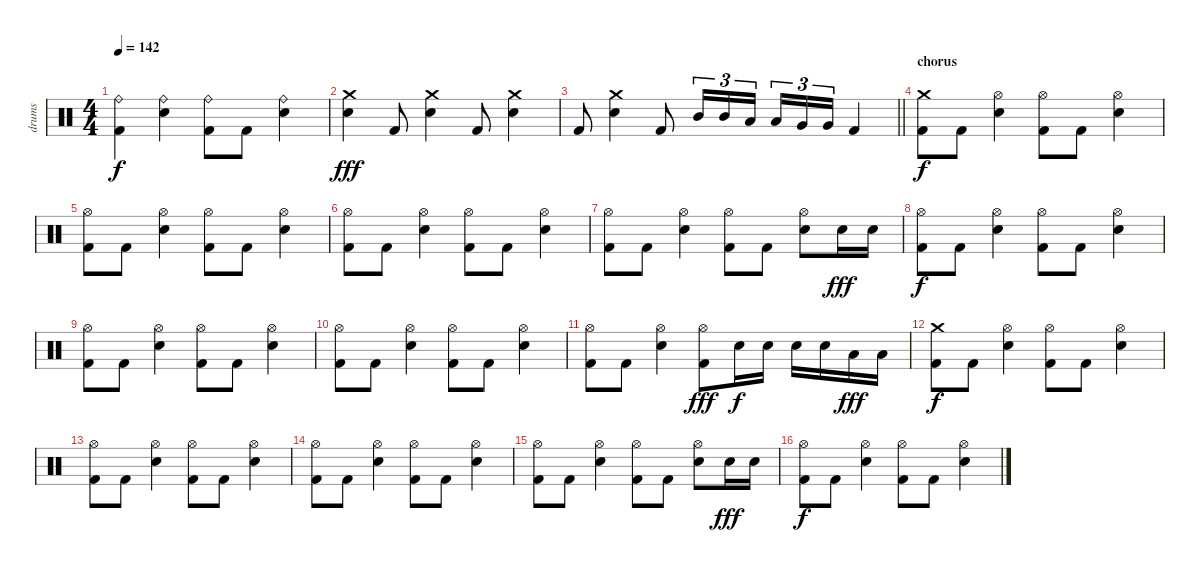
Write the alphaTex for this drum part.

\track ("drums" "drums") {instrument percussion}
\staff {score}
\articulation defaults
\ts (4 4)
\tempo 142
\clef neutral
\ks c
("Ride (bell)" "Kick (hit) 2").4{dy f} ("Ride (bell)" "Electric Snare (hit)").4 ("Ride (bell)" "Kick (hit) 2").8 "Kick (hit) 2".8 ("Ride (bell)" "Electric Snare (hit)").4 |
("Crash medium (hit)" "Electric Snare (hit)").4{dy fff} "Kick (hit) 2".8 ("Crash medium (hit)" "Electric Snare (hit)").4 "Kick (hit) 2".8 ("Crash medium (hit)" "Electric Snare (hit)").4 |
\barLineRight lightlight "Kick (hit) 2".8
("Crash medium (hit)" "Electric Snare (hit)").4 "Kick (hit) 2".8 "Mid Tom (hit)".16{tu (3 2)} "Mid Tom (hit)".16{tu (3 2)} "Low Tom (hit)".16{tu (3 2) beam splitsecondary} "Low Tom (hit)".16{tu (3 2)} "Very Low Tom (hit)".16{tu (3 2)} "Very Low Tom (hit)".16{tu (3 2)} "Kick (hit) 2".4 |
\section ("" "chorus")
("Crash medium (hit)" "Kick (hit) 2").8{dy f volume 12} "Kick (hit) 2".8 ("Hi-Hat (open)" "Electric Snare (hit)").4 ("Hi-Hat (open)" "Kick (hit) 2").8 "Kick (hit) 2".8 ("Hi-Hat (open)" "Electric Snare (hit)").4 |
("Hi-Hat (open)" "Kick (hit) 2").8 "Kick (hit) 2".8 ("Hi-Hat (open)" "Electric Snare (hit)").4 ("Hi-Hat (open)" "Kick (hit) 2").8 "Kick (hit) 2".8 ("Hi-Hat (open)" "Electric Snare (hit)").4 |
("Hi-Hat (open)" "Kick (hit) 2").8 "Kick (hit) 2".8 ("Hi-Hat (open)" "Electric Snare (hit)").4 ("Hi-Hat (open)" "Kick (hit) 2").8 "Kick (hit) 2".8 ("Hi-Hat (open)" "Electric Snare (hit)").4 |
("Hi-Hat (open)" "Kick (hit) 2").8 "Kick (hit) 2".8 ("Hi-Hat (open)" "Electric Snare (hit)").4 ("Hi-Hat (open)" "Kick (hit) 2").8 "Kick (hit) 2".8 ("Hi-Hat (open)" "Electric Snare (hit)").8 "Electric Snare (hit)".16{dy fff} "Electric Snare (hit)".16 |
("Hi-Hat (open)" "Kick (hit) 2").8{dy f} "Kick (hit) 2".8 ("Hi-Hat (open)" "Electric Snare (hit)").4 ("Hi-Hat (open)" "Kick (hit) 2").8 "Kick (hit) 2".8 ("Hi-Hat (open)" "Electric Snare (hit)").4 |
("Hi-Hat (open)" "Kick (hit) 2").8 "Kick (hit) 2".8 ("Hi-Hat (open)" "Electric Snare (hit)").4 ("Hi-Hat (open)" "Kick (hit) 2").8 "Kick (hit) 2".8 ("Hi-Hat (open)" "Electric Snare (hit)").4 |
("Hi-Hat (open)" "Kick (hit) 2").8 "Kick (hit) 2".8 ("Hi-Hat (open)" "Electric Snare (hit)").4 ("Hi-Hat (open)" "Kick (hit) 2").8 "Kick (hit) 2".8 ("Hi-Hat (open)" "Electric Snare (hit)").4 |
("Hi-Hat (open)" "Kick (hit) 2").8 "Kick (hit) 2".8 ("Hi-Hat (open)" "Electric Snare (hit)").4 ("Hi-Hat (open)" "Kick (hit) 2").8{dy fff} "Electric Snare (hit)".16{dy f} "Electric Snare (hit)".16 "Electric Snare (hit)".16 "Electric Snare (hit)".16 "Low Tom (hit)".16{dy fff} "Low Tom (hit)".16 |
("Crash medium (hit)" "Kick (hit) 2").8{dy f} "Kick (hit) 2".8 ("Hi-Hat (open)" "Electric Snare (hit)").4 ("Hi-Hat (open)" "Kick (hit) 2").8 "Kick (hit) 2".8 ("Hi-Hat (open)" "Electric Snare (hit)").4 |
("Hi-Hat (open)" "Kick (hit) 2").8 "Kick (hit) 2".8 ("Hi-Hat (open)" "Electric Snare (hit)").4 ("Hi-Hat (open)" "Kick (hit) 2").8 "Kick (hit) 2".8 ("Hi-Hat (open)" "Electric Snare (hit)").4 |
("Hi-Hat (open)" "Kick (hit) 2").8 "Kick (hit) 2".8 ("Hi-Hat (open)" "Electric Snare (hit)").4 ("Hi-Hat (open)" "Kick (hit) 2").8 "Kick (hit) 2".8 ("Hi-Hat (open)" "Electric Snare (hit)").4 |
("Hi-Hat (open)" "Kick (hit) 2").8 "Kick (hit) 2".8 ("Hi-Hat (open)" "Electric Snare (hit)").4 ("Hi-Hat (open)" "Kick (hit) 2").8 "Kick (hit) 2".8 ("Hi-Hat (open)" "Electric Snare (hit)").8 "Electric Snare (hit)".16{dy fff} "Electric Snare (hit)".16 |
("Hi-Hat (open)" "Kick (hit) 2").8{dy f} "Kick (hit) 2".8 ("Hi-Hat (open)" "Electric Snare (hit)").4 ("Hi-Hat (open)" "Kick (hit) 2").8 "Kick (hit) 2".8 ("Hi-Hat (open)" "Electric Snare (hit)").4
